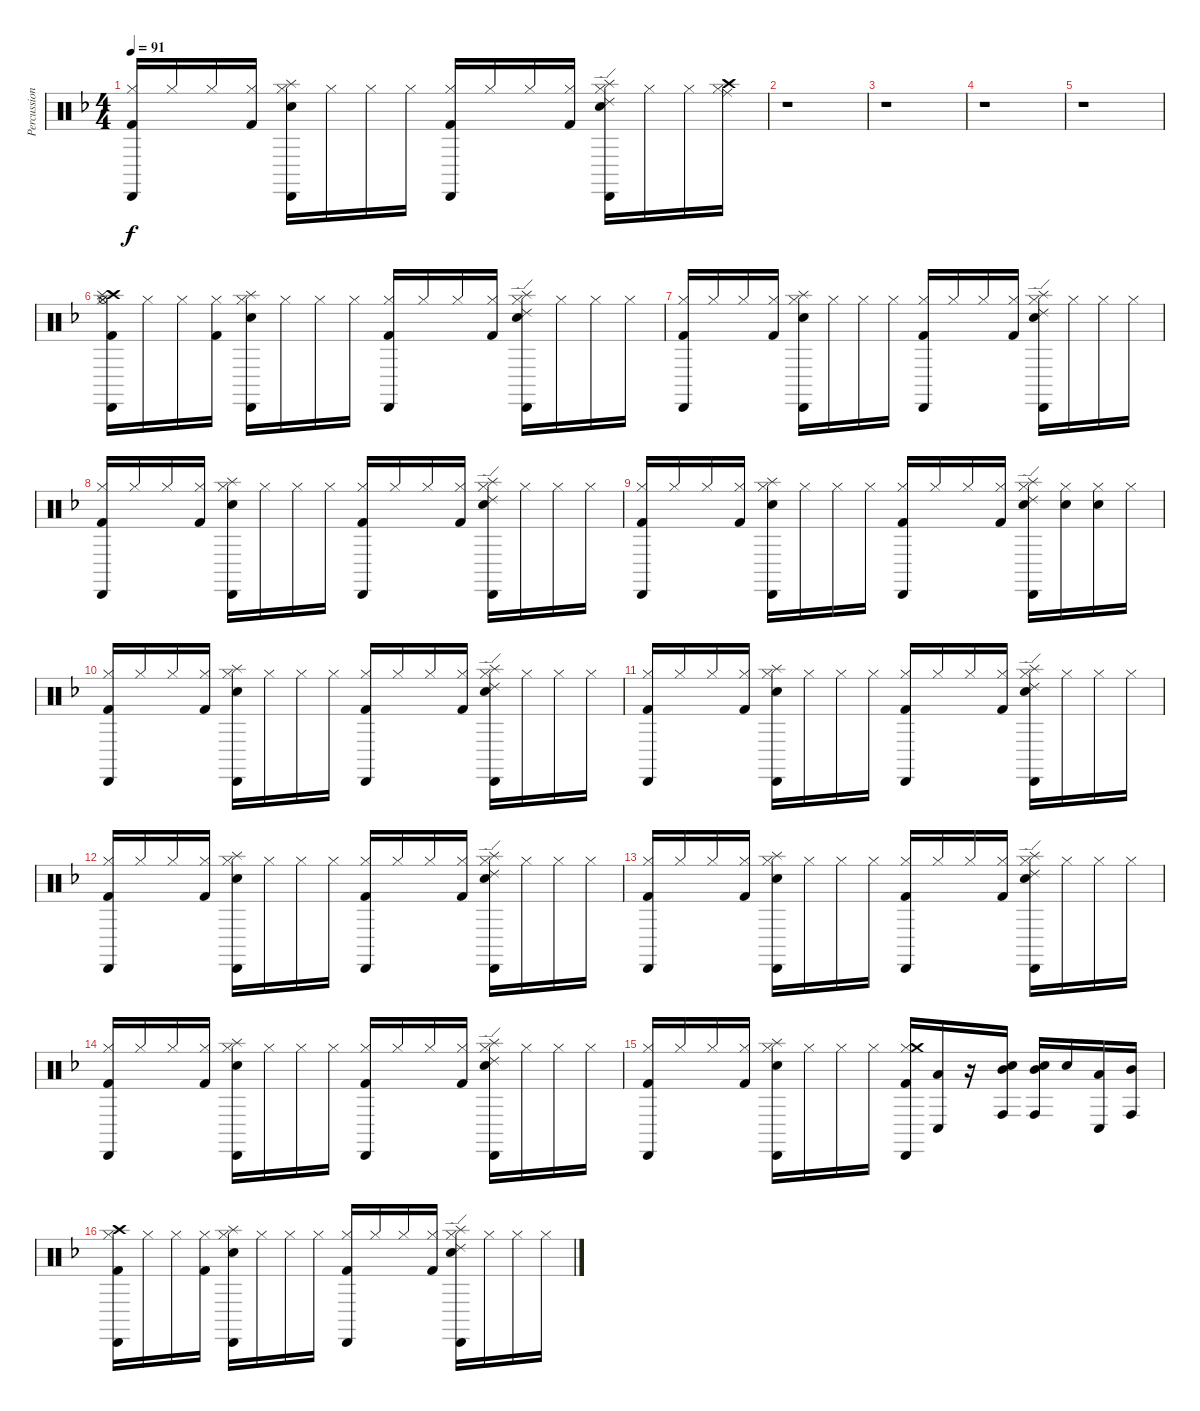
\track ("Percussion" "Percussion") {instrument percussion}
\staff {score}
\articulation defaults
\ts (4 4)
\tempo 91
\clef neutral
\ks dminor
("Hi-Hat (closed)" "Kick (hit) 2" "Cabasa (hit)").16{dy f volume 12} "Hi-Hat (closed)".16 "Hi-Hat (closed)".16 ("Hi-Hat (closed)" "Kick (hit) 2").16 ("Hi-Hat (closed)" "Snare (hit) 2" "Cabasa (hit)" "Splash (hit)").16 "Hi-Hat (closed)".16 "Hi-Hat (closed)".16 "Hi-Hat (closed)".16 ("Hi-Hat (closed)" "Kick (hit) 2" "Cabasa (hit)").16 "Hi-Hat (closed)".16 "Hi-Hat (closed)".16 ("Hi-Hat (closed)" "Kick (hit) 2").16 ("Hi-Hat (closed)" "Snare (hit) 2" "Cabasa (hit)" "Ride (edge) 2" "Splash (hit)").16 "Hi-Hat (closed)".16 "Hi-Hat (closed)".16 ("Hi-Hat (closed)" "Crash high (hit)" "Ride (middle)").16 |
r.1 |
r.1 |
r.1 |
r.1 |
("Hi-Hat (closed)" "Kick (hit) 2" "Cabasa (hit)" "Hi-Hat (open)" "Crash high (hit)" "Splash (hit)").16{volume 12} "Hi-Hat (closed)".16 "Hi-Hat (closed)".16 ("Hi-Hat (closed)" "Kick (hit) 2").16 ("Hi-Hat (closed)" "Snare (hit) 2" "Cabasa (hit)" "Splash (hit)").16 "Hi-Hat (closed)".16 "Hi-Hat (closed)".16 "Hi-Hat (closed)".16 ("Hi-Hat (closed)" "Kick (hit) 2" "Cabasa (hit)").16 "Hi-Hat (closed)".16 "Hi-Hat (closed)".16 ("Hi-Hat (closed)" "Kick (hit) 2").16 ("Hi-Hat (closed)" "Snare (hit) 2" "Cabasa (hit)" "Ride (edge) 2" "Splash (hit)").16 "Hi-Hat (closed)".16 "Hi-Hat (closed)".16 "Hi-Hat (closed)".16 |
("Hi-Hat (closed)" "Kick (hit) 2" "Cabasa (hit)").16{volume 12} "Hi-Hat (closed)".16 "Hi-Hat (closed)".16 ("Hi-Hat (closed)" "Kick (hit) 2").16 ("Hi-Hat (closed)" "Snare (hit) 2" "Cabasa (hit)" "Splash (hit)").16 "Hi-Hat (closed)".16 "Hi-Hat (closed)".16 "Hi-Hat (closed)".16 ("Hi-Hat (closed)" "Kick (hit) 2" "Cabasa (hit)").16 "Hi-Hat (closed)".16 "Hi-Hat (closed)".16 ("Hi-Hat (closed)" "Kick (hit) 2").16 ("Hi-Hat (closed)" "Snare (hit) 2" "Cabasa (hit)" "Ride (edge) 2" "Splash (hit)").16 "Hi-Hat (closed)".16 "Hi-Hat (closed)".16 "Hi-Hat (closed)".16 |
("Hi-Hat (closed)" "Kick (hit) 2" "Cabasa (hit)").16{volume 12} "Hi-Hat (closed)".16 "Hi-Hat (closed)".16 ("Hi-Hat (closed)" "Kick (hit) 2").16 ("Hi-Hat (closed)" "Snare (hit) 2" "Cabasa (hit)" "Splash (hit)").16 "Hi-Hat (closed)".16 "Hi-Hat (closed)".16 "Hi-Hat (closed)".16 ("Hi-Hat (closed)" "Kick (hit) 2" "Cabasa (hit)").16 "Hi-Hat (closed)".16 "Hi-Hat (closed)".16 ("Hi-Hat (closed)" "Kick (hit) 2").16 ("Hi-Hat (closed)" "Snare (hit) 2" "Cabasa (hit)" "Ride (edge) 2" "Splash (hit)").16 "Hi-Hat (closed)".16 "Hi-Hat (closed)".16 "Hi-Hat (closed)".16 |
("Hi-Hat (closed)" "Kick (hit) 2" "Cabasa (hit)").16{volume 12} "Hi-Hat (closed)".16 "Hi-Hat (closed)".16 ("Hi-Hat (closed)" "Kick (hit) 2").16 ("Hi-Hat (closed)" "Snare (hit) 2" "Cabasa (hit)" "Splash (hit)").16 "Hi-Hat (closed)".16 "Hi-Hat (closed)".16 "Hi-Hat (closed)".16 ("Hi-Hat (closed)" "Kick (hit) 2" "Cabasa (hit)").16 "Hi-Hat (closed)".16 "Hi-Hat (closed)".16 ("Hi-Hat (closed)" "Kick (hit) 2").16 ("Hi-Hat (closed)" "Snare (hit) 2" "Cabasa (hit)" "Ride (edge) 2" "Splash (hit)").16 ("Hi-Hat (closed)" "Snare (hit) 2").16 ("Hi-Hat (closed)" "Snare (hit) 2").16 "Hi-Hat (closed)".16 |
("Hi-Hat (closed)" "Kick (hit) 2" "Cabasa (hit)").16{volume 12} "Hi-Hat (closed)".16 "Hi-Hat (closed)".16 ("Hi-Hat (closed)" "Kick (hit) 2").16 ("Hi-Hat (closed)" "Snare (hit) 2" "Cabasa (hit)" "Splash (hit)").16 "Hi-Hat (closed)".16 "Hi-Hat (closed)".16 "Hi-Hat (closed)".16 ("Hi-Hat (closed)" "Kick (hit) 2" "Cabasa (hit)").16 "Hi-Hat (closed)".16 "Hi-Hat (closed)".16 ("Hi-Hat (closed)" "Kick (hit) 2").16 ("Hi-Hat (closed)" "Snare (hit) 2" "Cabasa (hit)" "Ride (edge) 2" "Splash (hit)").16 "Hi-Hat (closed)".16 "Hi-Hat (closed)".16 "Hi-Hat (closed)".16 |
("Hi-Hat (closed)" "Kick (hit) 2" "Cabasa (hit)").16{volume 12} "Hi-Hat (closed)".16 "Hi-Hat (closed)".16 ("Hi-Hat (closed)" "Kick (hit) 2").16 ("Hi-Hat (closed)" "Snare (hit) 2" "Cabasa (hit)" "Splash (hit)").16 "Hi-Hat (closed)".16 "Hi-Hat (closed)".16 "Hi-Hat (closed)".16 ("Hi-Hat (closed)" "Kick (hit) 2" "Cabasa (hit)").16 "Hi-Hat (closed)".16 "Hi-Hat (closed)".16 ("Hi-Hat (closed)" "Kick (hit) 2").16 ("Hi-Hat (closed)" "Snare (hit) 2" "Cabasa (hit)" "Ride (edge) 2" "Splash (hit)").16 "Hi-Hat (closed)".16 "Hi-Hat (closed)".16 "Hi-Hat (closed)".16 |
("Hi-Hat (closed)" "Kick (hit) 2" "Cabasa (hit)").16{volume 12} "Hi-Hat (closed)".16 "Hi-Hat (closed)".16 ("Hi-Hat (closed)" "Kick (hit) 2").16 ("Hi-Hat (closed)" "Snare (hit) 2" "Cabasa (hit)" "Splash (hit)").16 "Hi-Hat (closed)".16 "Hi-Hat (closed)".16 "Hi-Hat (closed)".16 ("Hi-Hat (closed)" "Kick (hit) 2" "Cabasa (hit)").16 "Hi-Hat (closed)".16 "Hi-Hat (closed)".16 ("Hi-Hat (closed)" "Kick (hit) 2").16 ("Hi-Hat (closed)" "Snare (hit) 2" "Cabasa (hit)" "Ride (edge) 2" "Splash (hit)").16 "Hi-Hat (closed)".16 "Hi-Hat (closed)".16 "Hi-Hat (closed)".16 |
("Hi-Hat (closed)" "Kick (hit) 2" "Cabasa (hit)").16{volume 12} "Hi-Hat (closed)".16 "Hi-Hat (closed)".16 ("Hi-Hat (closed)" "Kick (hit) 2").16 ("Hi-Hat (closed)" "Snare (hit) 2" "Cabasa (hit)" "Splash (hit)").16 "Hi-Hat (closed)".16 "Hi-Hat (closed)".16 "Hi-Hat (closed)".16 ("Hi-Hat (closed)" "Kick (hit) 2" "Cabasa (hit)").16 "Hi-Hat (closed)".16 "Hi-Hat (closed)".16 ("Hi-Hat (closed)" "Kick (hit) 2").16 ("Hi-Hat (closed)" "Snare (hit) 2" "Cabasa (hit)" "Ride (edge) 2" "Splash (hit)").16 "Hi-Hat (closed)".16 "Hi-Hat (closed)".16 "Hi-Hat (closed)".16 |
("Hi-Hat (closed)" "Kick (hit) 2" "Cabasa (hit)").16{volume 12} "Hi-Hat (closed)".16 "Hi-Hat (closed)".16 ("Hi-Hat (closed)" "Kick (hit) 2").16 ("Hi-Hat (closed)" "Snare (hit) 2" "Cabasa (hit)" "Splash (hit)").16 "Hi-Hat (closed)".16 "Hi-Hat (closed)".16 "Hi-Hat (closed)".16 ("Hi-Hat (closed)" "Kick (hit) 2" "Cabasa (hit)").16 "Hi-Hat (closed)".16 "Hi-Hat (closed)".16 ("Hi-Hat (closed)" "Kick (hit) 2").16 ("Hi-Hat (closed)" "Snare (hit) 2" "Cabasa (hit)" "Ride (edge) 2" "Splash (hit)").16 "Hi-Hat (closed)".16 "Hi-Hat (closed)".16 "Hi-Hat (closed)".16 |
("Hi-Hat (closed)" "Kick (hit) 2" "Cabasa (hit)").16{volume 12} "Hi-Hat (closed)".16 "Hi-Hat (closed)".16 ("Hi-Hat (closed)" "Kick (hit) 2").16 ("Hi-Hat (closed)" "Snare (hit) 2" "Cabasa (hit)" "Splash (hit)").16 "Hi-Hat (closed)".16 "Hi-Hat (closed)".16 "Hi-Hat (closed)".16 ("Hi-Hat (closed)" "Kick (hit) 2" "Cabasa (hit)" "Crash medium (hit)").16 ("Conga low (hit)" "Low Tom (hit)").16 r.16 ("Conga high (hit)" "Mid Tom (hit)" "Snare (hit) 2").16 ("Conga high (hit)" "Mid Tom (hit)" "Snare (hit) 2").16 "Snare (hit) 2".16 ("Conga low (hit)" "Low Tom (hit)").16 ("Conga high (hit)" "Mid Tom (hit)").16 |
("Hi-Hat (closed)" "Kick (hit) 2" "Cabasa (hit)" "Crash high (hit)").16{volume 12} "Hi-Hat (closed)".16 "Hi-Hat (closed)".16 ("Hi-Hat (closed)" "Kick (hit) 2").16 ("Hi-Hat (closed)" "Snare (hit) 2" "Cabasa (hit)" "Splash (hit)").16 "Hi-Hat (closed)".16 "Hi-Hat (closed)".16 "Hi-Hat (closed)".16 ("Hi-Hat (closed)" "Kick (hit) 2" "Cabasa (hit)").16 "Hi-Hat (closed)".16 "Hi-Hat (closed)".16 ("Hi-Hat (closed)" "Kick (hit) 2").16 ("Hi-Hat (closed)" "Snare (hit) 2" "Cabasa (hit)" "Ride (edge) 2" "Splash (hit)").16 "Hi-Hat (closed)".16 "Hi-Hat (closed)".16 "Hi-Hat (closed)".16
